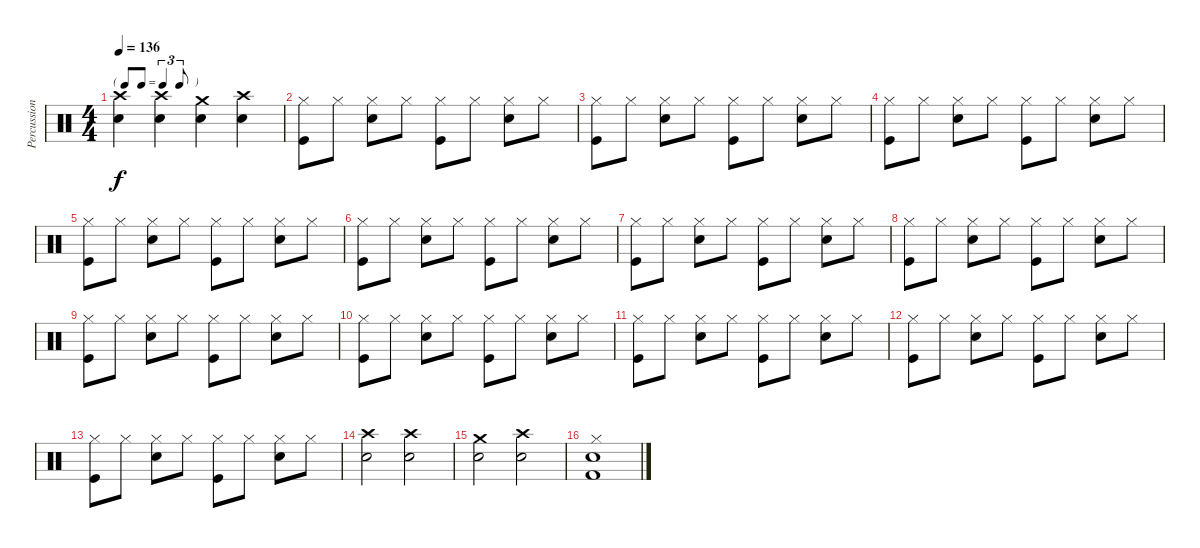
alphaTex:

\track ("Percussion" "Percussion") {instrument percussion}
\staff {score}
\articulation defaults
\ts (4 4)
\tf triplet8th
\tempo 136
\clef neutral
\ks c
("Crash high (hit)" "Snare (hit) 2").4{dy f} ("Crash high (hit)" "Snare (hit) 2").4 ("Crash medium (hit)" "Snare (hit) 2").4 ("Crash high (hit)" "Snare (hit) 2").4 |
("Hi-Hat (closed)" "Kick (hit)").8 "Hi-Hat (closed)".8 ("Hi-Hat (closed)" "Snare (hit) 2").8 "Hi-Hat (closed)".8 ("Hi-Hat (closed)" "Kick (hit)").8 "Hi-Hat (closed)".8 ("Hi-Hat (closed)" "Snare (hit) 2").8 "Hi-Hat (closed)".8 |
("Hi-Hat (closed)" "Kick (hit)").8 "Hi-Hat (closed)".8 ("Hi-Hat (closed)" "Snare (hit) 2").8 "Hi-Hat (closed)".8 ("Hi-Hat (closed)" "Kick (hit)").8 "Hi-Hat (closed)".8 ("Hi-Hat (closed)" "Snare (hit) 2").8 "Hi-Hat (closed)".8 |
("Hi-Hat (closed)" "Kick (hit)").8 "Hi-Hat (closed)".8 ("Hi-Hat (closed)" "Snare (hit) 2").8 "Hi-Hat (closed)".8 ("Hi-Hat (closed)" "Kick (hit)").8 "Hi-Hat (closed)".8 ("Hi-Hat (closed)" "Snare (hit) 2").8 "Hi-Hat (closed)".8 |
("Hi-Hat (closed)" "Kick (hit)").8 "Hi-Hat (closed)".8 ("Hi-Hat (closed)" "Snare (hit) 2").8 "Hi-Hat (closed)".8 ("Hi-Hat (closed)" "Kick (hit)").8 "Hi-Hat (closed)".8 ("Hi-Hat (closed)" "Snare (hit) 2").8 "Hi-Hat (closed)".8 |
("Hi-Hat (closed)" "Kick (hit)").8 "Hi-Hat (closed)".8 ("Hi-Hat (closed)" "Snare (hit) 2").8 "Hi-Hat (closed)".8 ("Hi-Hat (closed)" "Kick (hit)").8 "Hi-Hat (closed)".8 ("Hi-Hat (closed)" "Snare (hit) 2").8 "Hi-Hat (closed)".8 |
("Hi-Hat (closed)" "Kick (hit)").8 "Hi-Hat (closed)".8 ("Hi-Hat (closed)" "Snare (hit) 2").8 "Hi-Hat (closed)".8 ("Hi-Hat (closed)" "Kick (hit)").8 "Hi-Hat (closed)".8 ("Hi-Hat (closed)" "Snare (hit) 2").8 "Hi-Hat (closed)".8 |
("Hi-Hat (closed)" "Kick (hit)").8 "Hi-Hat (closed)".8 ("Hi-Hat (closed)" "Snare (hit) 2").8 "Hi-Hat (closed)".8 ("Hi-Hat (closed)" "Kick (hit)").8 "Hi-Hat (closed)".8 ("Hi-Hat (closed)" "Snare (hit) 2").8 "Hi-Hat (closed)".8 |
("Hi-Hat (closed)" "Kick (hit)").8 "Hi-Hat (closed)".8 ("Hi-Hat (closed)" "Snare (hit) 2").8 "Hi-Hat (closed)".8 ("Hi-Hat (closed)" "Kick (hit)").8 "Hi-Hat (closed)".8 ("Hi-Hat (closed)" "Snare (hit) 2").8 "Hi-Hat (closed)".8 |
("Hi-Hat (closed)" "Kick (hit)").8 "Hi-Hat (closed)".8 ("Hi-Hat (closed)" "Snare (hit) 2").8 "Hi-Hat (closed)".8 ("Hi-Hat (closed)" "Kick (hit)").8 "Hi-Hat (closed)".8 ("Hi-Hat (closed)" "Snare (hit) 2").8 "Hi-Hat (closed)".8 |
("Hi-Hat (closed)" "Kick (hit)").8 "Hi-Hat (closed)".8 ("Hi-Hat (closed)" "Snare (hit) 2").8 "Hi-Hat (closed)".8 ("Hi-Hat (closed)" "Kick (hit)").8 "Hi-Hat (closed)".8 ("Hi-Hat (closed)" "Snare (hit) 2").8 "Hi-Hat (closed)".8 |
("Hi-Hat (closed)" "Kick (hit)").8 "Hi-Hat (closed)".8 ("Hi-Hat (closed)" "Snare (hit) 2").8 "Hi-Hat (closed)".8 ("Hi-Hat (closed)" "Kick (hit)").8 "Hi-Hat (closed)".8 ("Hi-Hat (closed)" "Snare (hit) 2").8 "Hi-Hat (closed)".8 |
("Hi-Hat (closed)" "Kick (hit)").8 "Hi-Hat (closed)".8 ("Hi-Hat (closed)" "Snare (hit) 2").8 "Hi-Hat (closed)".8 ("Hi-Hat (closed)" "Kick (hit)").8 "Hi-Hat (closed)".8 ("Hi-Hat (closed)" "Snare (hit) 2").8 "Hi-Hat (closed)".8 |
("Crash high (hit)" "Snare (hit) 2").2 ("Crash high (hit)" "Snare (hit) 2").2 |
("Crash medium (hit)" "Snare (hit) 2").2 ("Crash high (hit)" "Snare (hit) 2").2 |
("Hi-Hat (closed)" "Snare (hit) 2" "Kick (hit) 2").1
